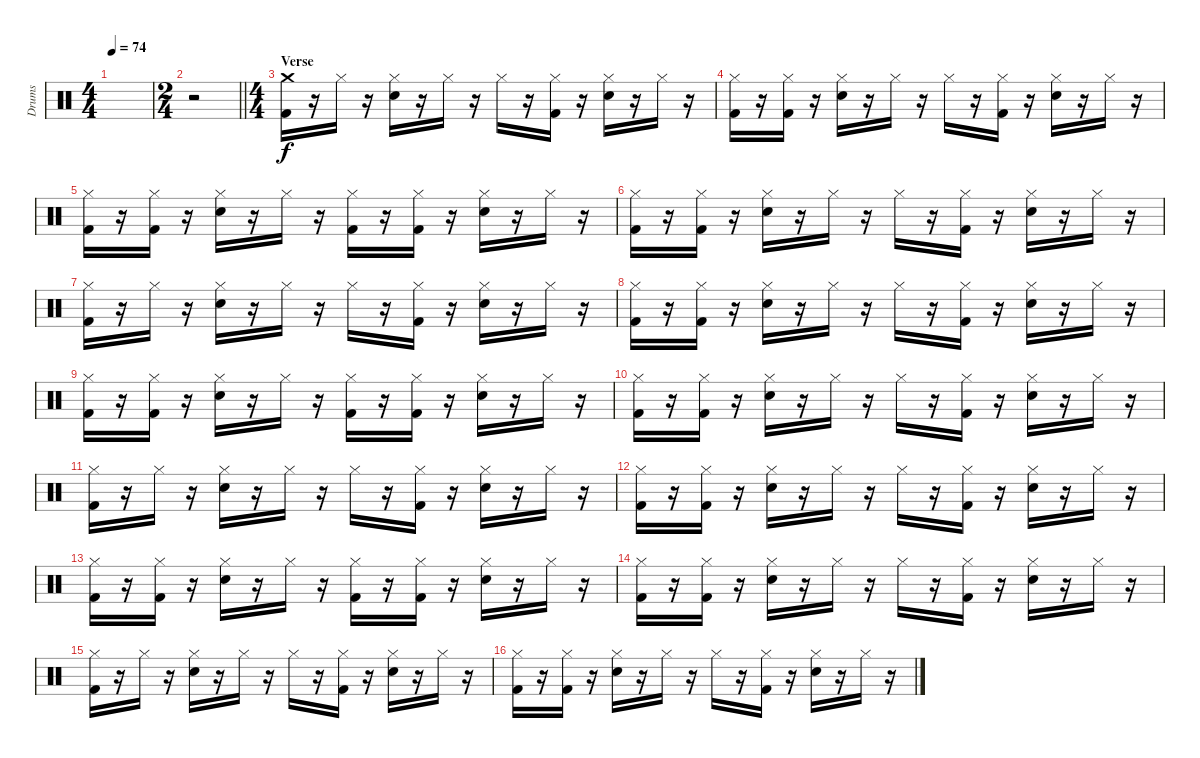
\track ("Drums" "Drums") {instrument percussion}
\staff {score}
\articulation defaults
\ts (4 4)
\tempo 74
\clef neutral
\ks c
|
\ts (2 4)
\barLineRight lightlight
r.2 |
\ts (4 4)
\section ("" "Verse")
("Crash medium (hit)" "Kick (hit) 2").16 r.16 "Hi-Hat (closed)".16 r.16 ("Hi-Hat (closed)" "Snare (hit) 2").16 r.16 "Hi-Hat (closed)".16 r.16 "Hi-Hat (closed)".16 r.16 ("Hi-Hat (closed)" "Kick (hit) 2").16 r.16 ("Hi-Hat (closed)" "Snare (hit) 2").16 r.16 "Hi-Hat (closed)".16 r.16 |
("Hi-Hat (closed)" "Kick (hit) 2").16 r.16 ("Hi-Hat (closed)" "Kick (hit) 2").16 r.16 ("Hi-Hat (closed)" "Snare (hit) 2").16 r.16 "Hi-Hat (closed)".16 r.16 "Hi-Hat (closed)".16 r.16 ("Hi-Hat (closed)" "Kick (hit) 2").16 r.16 ("Hi-Hat (closed)" "Snare (hit) 2").16 r.16 "Hi-Hat (closed)".16 r.16 |
("Hi-Hat (closed)" "Kick (hit) 2").16 r.16 ("Hi-Hat (closed)" "Kick (hit) 2").16 r.16 ("Hi-Hat (closed)" "Snare (hit) 2").16 r.16 "Hi-Hat (closed)".16 r.16 ("Hi-Hat (closed)" "Kick (hit) 2").16 r.16 ("Hi-Hat (closed)" "Kick (hit) 2").16 r.16 ("Hi-Hat (closed)" "Snare (hit) 2").16 r.16 "Hi-Hat (closed)".16 r.16 |
("Hi-Hat (closed)" "Kick (hit) 2").16 r.16 ("Hi-Hat (closed)" "Kick (hit) 2").16 r.16 ("Hi-Hat (closed)" "Snare (hit) 2").16 r.16 "Hi-Hat (closed)".16 r.16 "Hi-Hat (closed)".16 r.16 ("Hi-Hat (closed)" "Kick (hit) 2").16 r.16 ("Hi-Hat (closed)" "Snare (hit) 2").16 r.16 "Hi-Hat (closed)".16 r.16 |
("Hi-Hat (closed)" "Kick (hit) 2").16 r.16 "Hi-Hat (closed)".16 r.16 ("Hi-Hat (closed)" "Snare (hit) 2").16 r.16 "Hi-Hat (closed)".16 r.16 "Hi-Hat (closed)".16 r.16 ("Hi-Hat (closed)" "Kick (hit) 2").16 r.16 ("Hi-Hat (closed)" "Snare (hit) 2").16 r.16 "Hi-Hat (closed)".16 r.16 |
("Hi-Hat (closed)" "Kick (hit) 2").16 r.16 ("Hi-Hat (closed)" "Kick (hit) 2").16 r.16 ("Hi-Hat (closed)" "Snare (hit) 2").16 r.16 "Hi-Hat (closed)".16 r.16 "Hi-Hat (closed)".16 r.16 ("Hi-Hat (closed)" "Kick (hit) 2").16 r.16 ("Hi-Hat (closed)" "Snare (hit) 2").16 r.16 "Hi-Hat (closed)".16 r.16 |
("Hi-Hat (closed)" "Kick (hit) 2").16 r.16 ("Hi-Hat (closed)" "Kick (hit) 2").16 r.16 ("Hi-Hat (closed)" "Snare (hit) 2").16 r.16 "Hi-Hat (closed)".16 r.16 ("Hi-Hat (closed)" "Kick (hit) 2").16 r.16 ("Hi-Hat (closed)" "Kick (hit) 2").16 r.16 ("Hi-Hat (closed)" "Snare (hit) 2").16 r.16 "Hi-Hat (closed)".16 r.16 |
("Hi-Hat (closed)" "Kick (hit) 2").16 r.16 ("Hi-Hat (closed)" "Kick (hit) 2").16 r.16 ("Hi-Hat (closed)" "Snare (hit) 2").16 r.16 "Hi-Hat (closed)".16 r.16 "Hi-Hat (closed)".16 r.16 ("Hi-Hat (closed)" "Kick (hit) 2").16 r.16 ("Hi-Hat (closed)" "Snare (hit) 2").16 r.16 "Hi-Hat (closed)".16 r.16 |
("Hi-Hat (closed)" "Kick (hit) 2").16 r.16 "Hi-Hat (closed)".16 r.16 ("Hi-Hat (closed)" "Snare (hit) 2").16 r.16 "Hi-Hat (closed)".16 r.16 "Hi-Hat (closed)".16 r.16 ("Hi-Hat (closed)" "Kick (hit) 2").16 r.16 ("Hi-Hat (closed)" "Snare (hit) 2").16 r.16 "Hi-Hat (closed)".16 r.16 |
("Hi-Hat (closed)" "Kick (hit) 2").16 r.16 ("Hi-Hat (closed)" "Kick (hit) 2").16 r.16 ("Hi-Hat (closed)" "Snare (hit) 2").16 r.16 "Hi-Hat (closed)".16 r.16 "Hi-Hat (closed)".16 r.16 ("Hi-Hat (closed)" "Kick (hit) 2").16 r.16 ("Hi-Hat (closed)" "Snare (hit) 2").16 r.16 "Hi-Hat (closed)".16 r.16 |
("Hi-Hat (closed)" "Kick (hit) 2").16 r.16 ("Hi-Hat (closed)" "Kick (hit) 2").16 r.16 ("Hi-Hat (closed)" "Snare (hit) 2").16 r.16 "Hi-Hat (closed)".16 r.16 ("Hi-Hat (closed)" "Kick (hit) 2").16 r.16 ("Hi-Hat (closed)" "Kick (hit) 2").16 r.16 ("Hi-Hat (closed)" "Snare (hit) 2").16 r.16 "Hi-Hat (closed)".16 r.16 |
("Hi-Hat (closed)" "Kick (hit) 2").16 r.16 ("Hi-Hat (closed)" "Kick (hit) 2").16 r.16 ("Hi-Hat (closed)" "Snare (hit) 2").16 r.16 "Hi-Hat (closed)".16 r.16 "Hi-Hat (closed)".16 r.16 ("Hi-Hat (closed)" "Kick (hit) 2").16 r.16 ("Hi-Hat (closed)" "Snare (hit) 2").16 r.16 "Hi-Hat (closed)".16 r.16 |
("Hi-Hat (closed)" "Kick (hit) 2").16 r.16 "Hi-Hat (closed)".16 r.16 ("Hi-Hat (closed)" "Snare (hit) 2").16 r.16 "Hi-Hat (closed)".16 r.16 "Hi-Hat (closed)".16 r.16 ("Hi-Hat (closed)" "Kick (hit) 2").16 r.16 ("Hi-Hat (closed)" "Snare (hit) 2").16 r.16 "Hi-Hat (closed)".16 r.16 |
("Hi-Hat (closed)" "Kick (hit) 2").16 r.16 ("Hi-Hat (closed)" "Kick (hit) 2").16 r.16 ("Hi-Hat (closed)" "Snare (hit) 2").16 r.16 "Hi-Hat (closed)".16 r.16 "Hi-Hat (closed)".16 r.16 ("Hi-Hat (closed)" "Kick (hit) 2").16 r.16 ("Hi-Hat (closed)" "Snare (hit) 2").16 r.16 "Hi-Hat (closed)".16 r.16
